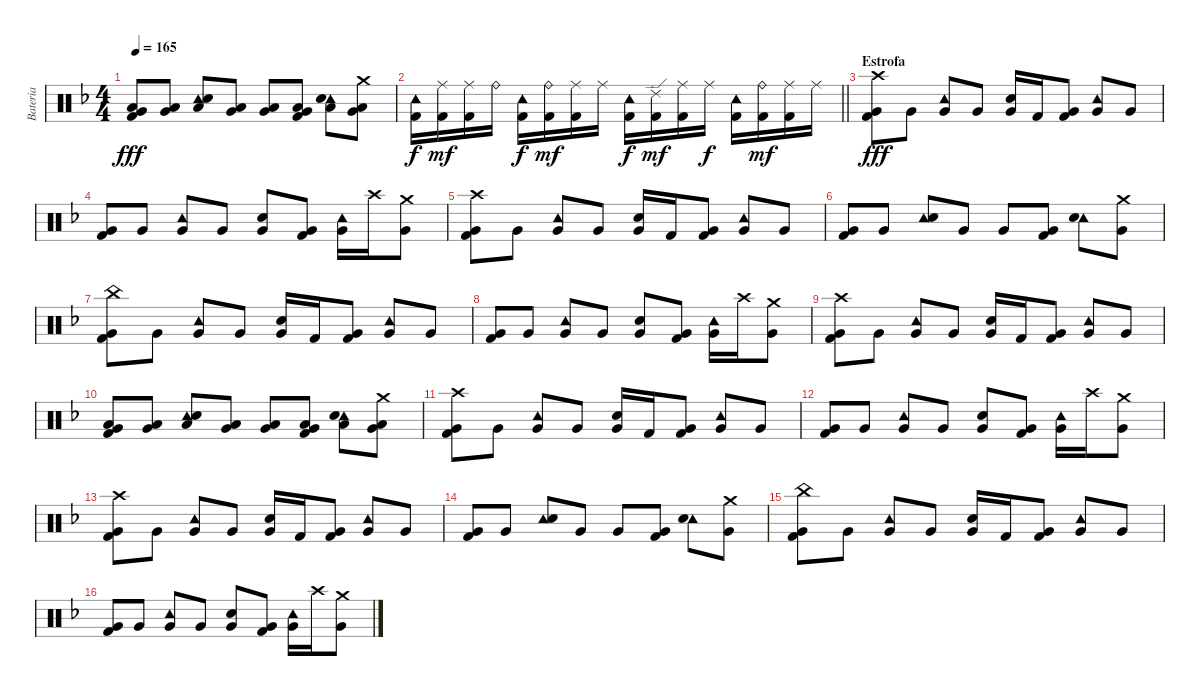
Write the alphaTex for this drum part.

\track ("Bateria" "Bateria") {instrument percussion}
\staff {score}
\articulation defaults
\ts (4 4)
\tempo 165
\clef neutral
\ks f
("Low Floor Tom (hit)" "Very Low Tom (hit)" "Kick (hit) 2").8{dy fff} ("Low Floor Tom (hit)" "Very Low Tom (hit)").8 ("Low Floor Tom (hit)" "Tambourine (hit)" "Snare (hit) 2").8 ("Low Floor Tom (hit)" "Very Low Tom (hit)").8 ("Low Floor Tom (hit)" "Very Low Tom (hit)").8 ("Low Floor Tom (hit)" "Very Low Tom (hit)" "Kick (hit) 2").8 ("Low Floor Tom (hit)" "Tambourine (hit)" "Snare (hit) 2").8 ("Crash medium (hit)" "Low Floor Tom (hit)" "Very Low Tom (hit)").8 |
\barLineRight lightlight
("Tambourine (hit)" "Kick (hit) 2").16{dy f} ("Ride (middle)" "Kick (hit) 2").16{dy mf} ("Ride (middle)" "Kick (hit) 2").16 "Ride (bell)".16 ("Tambourine (hit)" "Kick (hit) 2").16{dy f} ("Ride (bell)" "Kick (hit) 2").16{dy mf} ("Ride (middle)" "Kick (hit) 2").16 "Ride (middle)".16 ("Tambourine (hit)" "Kick (hit) 2").16{dy f} ("Ride (edge) 2" "Kick (hit) 2").16{dy mf} ("Ride (middle)" "Kick (hit) 2").16 "Ride (middle)".16{dy f} ("Tambourine (hit)" "Kick (hit) 2").16 ("Ride (bell)" "Kick (hit) 2").16{dy mf} ("Ride (middle)" "Kick (hit) 2").16 "Ride (middle)".16 |
\section ("" "Estrofa")
("Crash high (hit)" "Very Low Tom (hit)" "Kick (hit) 2").8{dy fff} "Very Low Tom (hit)".8 ("Tambourine (hit)" "Very Low Tom (hit)").8 "Very Low Tom (hit)".8 ("Snare (hit) 2" "Very Low Tom (hit)").16 "Kick (hit) 2".16 ("Very Low Tom (hit)" "Kick (hit) 2").8 ("Tambourine (hit)" "Very Low Tom (hit)").8 "Very Low Tom (hit)".8 |
("Very Low Tom (hit)" "Kick (hit) 2").8 "Very Low Tom (hit)".8 ("Tambourine (hit)" "Very Low Tom (hit)").8 "Very Low Tom (hit)".8 ("Snare (hit) 2" "Very Low Tom (hit)").8 ("Very Low Tom (hit)" "Kick (hit) 2").8 ("Tambourine (hit)" "Very Low Tom (hit)").16 "Crash high (hit)".16 ("Crash medium (hit)" "Very Low Tom (hit)").8 |
("Crash high (hit)" "Very Low Tom (hit)" "Kick (hit) 2").8 "Very Low Tom (hit)".8 ("Tambourine (hit)" "Very Low Tom (hit)").8 "Very Low Tom (hit)".8 ("Snare (hit) 2" "Very Low Tom (hit)").16 "Kick (hit) 2".16 ("Very Low Tom (hit)" "Kick (hit) 2").8 ("Tambourine (hit)" "Very Low Tom (hit)").8 "Very Low Tom (hit)".8 |
("Very Low Tom (hit)" "Kick (hit) 2").8 "Very Low Tom (hit)".8 ("Tambourine (hit)" "Snare (hit) 2").8 "Very Low Tom (hit)".8 "Very Low Tom (hit)".8 ("Very Low Tom (hit)" "Kick (hit) 2").8 ("Tambourine (hit)" "Snare (hit) 2").8 ("Crash medium (hit)" "Very Low Tom (hit)").8 |
("China (hit)" "Very Low Tom (hit)" "Kick (hit) 2").8 "Very Low Tom (hit)".8 ("Tambourine (hit)" "Very Low Tom (hit)").8 "Very Low Tom (hit)".8 ("Snare (hit) 2" "Very Low Tom (hit)").16 "Kick (hit) 2".16 ("Very Low Tom (hit)" "Kick (hit) 2").8 ("Tambourine (hit)" "Very Low Tom (hit)").8 "Very Low Tom (hit)".8 |
("Very Low Tom (hit)" "Kick (hit) 2").8 "Very Low Tom (hit)".8 ("Tambourine (hit)" "Very Low Tom (hit)").8 "Very Low Tom (hit)".8 ("Snare (hit) 2" "Very Low Tom (hit)").8 ("Very Low Tom (hit)" "Kick (hit) 2").8 ("Tambourine (hit)" "Very Low Tom (hit)").16 "Crash high (hit)".16 ("Crash medium (hit)" "Very Low Tom (hit)").8 |
("Crash high (hit)" "Very Low Tom (hit)" "Kick (hit) 2").8 "Very Low Tom (hit)".8 ("Tambourine (hit)" "Very Low Tom (hit)").8 "Very Low Tom (hit)".8 ("Snare (hit) 2" "Very Low Tom (hit)").16 "Kick (hit) 2".16 ("Very Low Tom (hit)" "Kick (hit) 2").8 ("Tambourine (hit)" "Very Low Tom (hit)").8 "Very Low Tom (hit)".8 |
("Low Floor Tom (hit)" "Very Low Tom (hit)" "Kick (hit) 2").8 ("Low Floor Tom (hit)" "Very Low Tom (hit)").8 ("Low Floor Tom (hit)" "Tambourine (hit)" "Snare (hit) 2").8 ("Low Floor Tom (hit)" "Very Low Tom (hit)").8 ("Low Floor Tom (hit)" "Very Low Tom (hit)").8 ("Low Floor Tom (hit)" "Very Low Tom (hit)" "Kick (hit) 2").8 ("Low Floor Tom (hit)" "Tambourine (hit)" "Snare (hit) 2").8 ("Crash medium (hit)" "Low Floor Tom (hit)" "Very Low Tom (hit)").8 |
("Crash high (hit)" "Very Low Tom (hit)" "Kick (hit) 2").8 "Very Low Tom (hit)".8 ("Tambourine (hit)" "Very Low Tom (hit)").8 "Very Low Tom (hit)".8 ("Snare (hit) 2" "Very Low Tom (hit)").16 "Kick (hit) 2".16 ("Very Low Tom (hit)" "Kick (hit) 2").8 ("Tambourine (hit)" "Very Low Tom (hit)").8 "Very Low Tom (hit)".8 |
("Very Low Tom (hit)" "Kick (hit) 2").8 "Very Low Tom (hit)".8 ("Tambourine (hit)" "Very Low Tom (hit)").8 "Very Low Tom (hit)".8 ("Snare (hit) 2" "Very Low Tom (hit)").8 ("Very Low Tom (hit)" "Kick (hit) 2").8 ("Tambourine (hit)" "Very Low Tom (hit)").16 "Crash high (hit)".16 ("Crash medium (hit)" "Very Low Tom (hit)").8 |
("Crash high (hit)" "Very Low Tom (hit)" "Kick (hit) 2").8 "Very Low Tom (hit)".8 ("Tambourine (hit)" "Very Low Tom (hit)").8 "Very Low Tom (hit)".8 ("Snare (hit) 2" "Very Low Tom (hit)").16 "Kick (hit) 2".16 ("Very Low Tom (hit)" "Kick (hit) 2").8 ("Tambourine (hit)" "Very Low Tom (hit)").8 "Very Low Tom (hit)".8 |
("Very Low Tom (hit)" "Kick (hit) 2").8 "Very Low Tom (hit)".8 ("Tambourine (hit)" "Snare (hit) 2").8 "Very Low Tom (hit)".8 "Very Low Tom (hit)".8 ("Very Low Tom (hit)" "Kick (hit) 2").8 ("Tambourine (hit)" "Snare (hit) 2").8 ("Crash medium (hit)" "Very Low Tom (hit)").8 |
("China (hit)" "Very Low Tom (hit)" "Kick (hit) 2").8 "Very Low Tom (hit)".8 ("Tambourine (hit)" "Very Low Tom (hit)").8 "Very Low Tom (hit)".8 ("Snare (hit) 2" "Very Low Tom (hit)").16 "Kick (hit) 2".16 ("Very Low Tom (hit)" "Kick (hit) 2").8 ("Tambourine (hit)" "Very Low Tom (hit)").8 "Very Low Tom (hit)".8 |
("Very Low Tom (hit)" "Kick (hit) 2").8 "Very Low Tom (hit)".8 ("Tambourine (hit)" "Very Low Tom (hit)").8 "Very Low Tom (hit)".8 ("Snare (hit) 2" "Very Low Tom (hit)").8 ("Very Low Tom (hit)" "Kick (hit) 2").8 ("Tambourine (hit)" "Very Low Tom (hit)").16 "Crash high (hit)".16 ("Crash medium (hit)" "Very Low Tom (hit)").8
